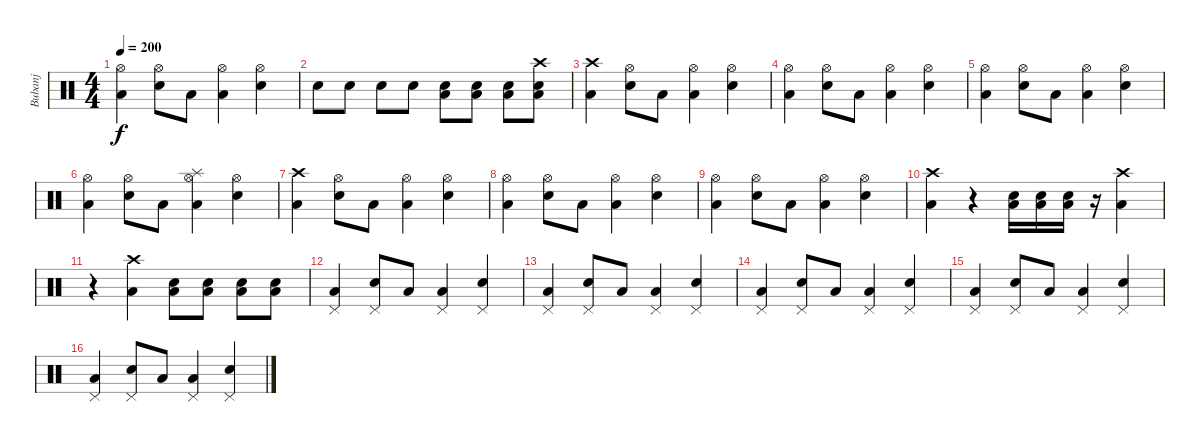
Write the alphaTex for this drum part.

\track ("Bubanj" "Bubanj") {instrument percussion}
\staff {score}
\articulation defaults
\ts (4 4)
\tempo 200
\clef neutral
\ks c
("Hi-Hat (open)" "Low Tom (hit)").4{dy f} ("Hi-Hat (open)" "Snare (hit) 2").8 "Low Tom (hit)".8 ("Hi-Hat (open)" "Low Tom (hit)").4 ("Hi-Hat (open)" "Snare (hit) 2").4 |
"Snare (hit) 2".8 "Snare (hit) 2".8 "Snare (hit) 2".8 "Snare (hit) 2".8 ("Low Tom (hit)" "Snare (hit) 2").8 ("Low Tom (hit)" "Snare (hit) 2").8 ("Low Tom (hit)" "Snare (hit) 2").8 ("Low Tom (hit)" "Crash high (hit)" "Snare (hit) 2").8 |
("Crash high (hit)" "Low Tom (hit)").4 ("Hi-Hat (open)" "Snare (hit) 2").8 "Low Tom (hit)".8 ("Hi-Hat (open)" "Low Tom (hit)").4 ("Hi-Hat (open)" "Snare (hit) 2").4 |
("Hi-Hat (open)" "Low Tom (hit)").4 ("Hi-Hat (open)" "Snare (hit) 2").8 "Low Tom (hit)".8 ("Hi-Hat (open)" "Low Tom (hit)").4 ("Hi-Hat (open)" "Snare (hit) 2").4 |
("Hi-Hat (open)" "Low Tom (hit)").4 ("Hi-Hat (open)" "Snare (hit) 2").8 "Low Tom (hit)".8 ("Hi-Hat (open)" "Low Tom (hit)").4 ("Hi-Hat (open)" "Snare (hit) 2").4 |
("Hi-Hat (open)" "Low Tom (hit)").4 ("Hi-Hat (open)" "Snare (hit) 2").8 "Low Tom (hit)".8 ("Hi-Hat (open)" "Splash (hit)" "Low Tom (hit)").4 ("Hi-Hat (open)" "Snare (hit) 2").4 |
("Crash high (hit)" "Low Tom (hit)").4 ("Hi-Hat (open)" "Snare (hit) 2").8 "Low Tom (hit)".8 ("Hi-Hat (open)" "Low Tom (hit)").4 ("Hi-Hat (open)" "Snare (hit) 2").4 |
("Hi-Hat (open)" "Low Tom (hit)").4 ("Hi-Hat (open)" "Snare (hit) 2").8 "Low Tom (hit)".8 ("Hi-Hat (open)" "Low Tom (hit)").4 ("Hi-Hat (open)" "Snare (hit) 2").4 |
("Hi-Hat (open)" "Low Tom (hit)").4 ("Hi-Hat (open)" "Snare (hit) 2").8 "Low Tom (hit)".8 ("Hi-Hat (open)" "Low Tom (hit)").4 ("Hi-Hat (open)" "Snare (hit) 2").4 |
("Crash high (hit)" "Low Tom (hit)").4 r.4 ("Electric Snare (hit)" "Low Tom (hit)").16 ("Electric Snare (hit)" "Low Tom (hit)").16 ("Electric Snare (hit)" "Low Tom (hit)").16 r.16 ("Crash high (hit)" "Low Tom (hit)").4 |
r.4 ("Crash high (hit)" "Low Tom (hit)").4 ("Snare (hit) 2" "Low Tom (hit)").8 ("Snare (hit) 2" "Low Tom (hit)").8 ("Snare (hit) 2" "Low Tom (hit)").8 ("Snare (hit) 2" "Low Tom (hit)").8 |
("Pedal Hi-Hat (hit)" "Low Tom (hit)").4 ("Pedal Hi-Hat (hit)" "Snare (hit) 2").8 "Low Tom (hit)".8 ("Pedal Hi-Hat (hit)" "Low Tom (hit)").4 ("Pedal Hi-Hat (hit)" "Snare (hit) 2").4 |
("Pedal Hi-Hat (hit)" "Low Tom (hit)").4 ("Pedal Hi-Hat (hit)" "Snare (hit) 2").8 "Low Tom (hit)".8 ("Pedal Hi-Hat (hit)" "Low Tom (hit)").4 ("Pedal Hi-Hat (hit)" "Snare (hit) 2").4 |
("Pedal Hi-Hat (hit)" "Low Tom (hit)").4 ("Pedal Hi-Hat (hit)" "Snare (hit) 2").8 "Low Tom (hit)".8 ("Pedal Hi-Hat (hit)" "Low Tom (hit)").4 ("Pedal Hi-Hat (hit)" "Snare (hit) 2").4 |
("Pedal Hi-Hat (hit)" "Low Tom (hit)").4 ("Pedal Hi-Hat (hit)" "Snare (hit) 2").8 "Low Tom (hit)".8 ("Pedal Hi-Hat (hit)" "Low Tom (hit)").4 ("Pedal Hi-Hat (hit)" "Snare (hit) 2").4 |
("Pedal Hi-Hat (hit)" "Low Tom (hit)").4 ("Pedal Hi-Hat (hit)" "Snare (hit) 2").8 "Low Tom (hit)".8 ("Pedal Hi-Hat (hit)" "Low Tom (hit)").4 ("Pedal Hi-Hat (hit)" "Snare (hit) 2").4
